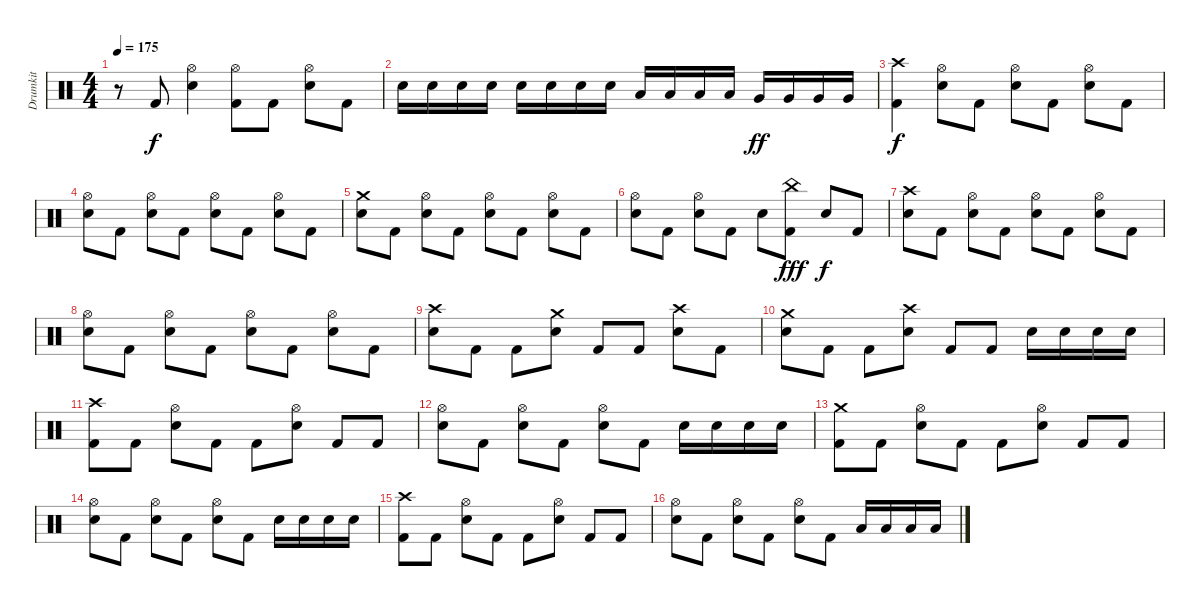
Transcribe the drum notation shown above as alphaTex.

\track ("Drumkit" "Drumkit") {instrument percussion}
\staff {score}
\articulation defaults
\ts (4 4)
\tempo 175
\clef neutral
\ks c
r.8{dy f} "Kick (hit) 2".8 ("Hi-Hat (open)" "Electric Snare (hit)").4 ("Hi-Hat (open)" "Kick (hit) 2").8 "Kick (hit) 2".8 ("Hi-Hat (open)" "Electric Snare (hit)").8 "Kick (hit) 2".8 |
"Electric Snare (hit)".16 "Electric Snare (hit)".16 "Electric Snare (hit)".16 "Electric Snare (hit)".16 "Electric Snare (hit)".16 "Electric Snare (hit)".16 "Electric Snare (hit)".16 "Electric Snare (hit)".16 "Low Tom (hit)".16 "Low Tom (hit)".16 "Low Tom (hit)".16 "Low Tom (hit)".16 "Very Low Tom (hit)".16{dy ff} "Very Low Tom (hit)".16 "Very Low Tom (hit)".16 "Very Low Tom (hit)".16 |
("Crash high (hit)" "Kick (hit) 2").4{dy f} ("Hi-Hat (open)" "Electric Snare (hit)").8 "Kick (hit) 2".8 ("Hi-Hat (open)" "Electric Snare (hit)").8 "Kick (hit) 2".8 ("Hi-Hat (open)" "Electric Snare (hit)").8 "Kick (hit) 2".8 |
("Hi-Hat (open)" "Electric Snare (hit)").8 "Kick (hit) 2".8 ("Hi-Hat (open)" "Electric Snare (hit)").8 "Kick (hit) 2".8 ("Hi-Hat (open)" "Electric Snare (hit)").8 "Kick (hit) 2".8 ("Hi-Hat (open)" "Electric Snare (hit)").8 "Kick (hit) 2".8 |
("Crash medium (hit)" "Electric Snare (hit)").8 "Kick (hit) 2".8 ("Hi-Hat (open)" "Electric Snare (hit)").8 "Kick (hit) 2".8 ("Hi-Hat (open)" "Electric Snare (hit)").8 "Kick (hit) 2".8 ("Hi-Hat (open)" "Electric Snare (hit)").8 "Kick (hit) 2".8 |
("Hi-Hat (open)" "Electric Snare (hit)").8 "Kick (hit) 2".8 ("Hi-Hat (open)" "Electric Snare (hit)").8 "Kick (hit) 2".8 "Electric Snare (hit)".8 ("China (hit)" "Kick (hit) 2").8{dy fff} "Electric Snare (hit)".8{dy f} "Kick (hit) 2".8 |
("Crash high (hit)" "Electric Snare (hit)").8 "Kick (hit) 2".8 ("Hi-Hat (open)" "Electric Snare (hit)").8 "Kick (hit) 2".8 ("Hi-Hat (open)" "Electric Snare (hit)").8 "Kick (hit) 2".8 ("Hi-Hat (open)" "Electric Snare (hit)").8 "Kick (hit) 2".8 |
("Hi-Hat (open)" "Electric Snare (hit)").8 "Kick (hit) 2".8 ("Hi-Hat (open)" "Electric Snare (hit)").8 "Kick (hit) 2".8 ("Hi-Hat (open)" "Electric Snare (hit)").8 "Kick (hit) 2".8 ("Hi-Hat (open)" "Electric Snare (hit)").8 "Kick (hit) 2".8 |
("Crash high (hit)" "Electric Snare (hit)").8 "Kick (hit) 2".8 "Kick (hit) 2".8 ("Crash medium (hit)" "Electric Snare (hit)").8 "Kick (hit) 2".8 "Kick (hit) 2".8 ("Crash high (hit)" "Electric Snare (hit)").8 "Kick (hit) 2".8 |
("Crash medium (hit)" "Electric Snare (hit)").8 "Kick (hit) 2".8 "Kick (hit) 2".8 ("Crash high (hit)" "Electric Snare (hit)").8 "Kick (hit) 2".8 "Kick (hit) 2".8 "Electric Snare (hit)".16 "Electric Snare (hit)".16 "Electric Snare (hit)".16 "Electric Snare (hit)".16 |
("Crash high (hit)" "Kick (hit) 2").8 "Kick (hit) 2".8 ("Hi-Hat (open)" "Electric Snare (hit)").8 "Kick (hit) 2".8 "Kick (hit) 2".8 ("Hi-Hat (open)" "Electric Snare (hit)").8 "Kick (hit) 2".8 "Kick (hit) 2".8 |
("Hi-Hat (open)" "Electric Snare (hit)").8 "Kick (hit) 2".8 ("Hi-Hat (open)" "Electric Snare (hit)").8 "Kick (hit) 2".8 ("Hi-Hat (open)" "Electric Snare (hit)").8 "Kick (hit) 2".8 "Electric Snare (hit)".16 "Electric Snare (hit)".16 "Electric Snare (hit)".16 "Electric Snare (hit)".16 |
("Crash medium (hit)" "Kick (hit) 2").8 "Kick (hit) 2".8 ("Hi-Hat (open)" "Electric Snare (hit)").8 "Kick (hit) 2".8 "Kick (hit) 2".8 ("Hi-Hat (open)" "Electric Snare (hit)").8 "Kick (hit) 2".8 "Kick (hit) 2".8 |
("Hi-Hat (open)" "Electric Snare (hit)").8 "Kick (hit) 2".8 ("Hi-Hat (open)" "Electric Snare (hit)").8 "Kick (hit) 2".8 ("Hi-Hat (open)" "Electric Snare (hit)").8 "Kick (hit) 2".8 "Electric Snare (hit)".16 "Electric Snare (hit)".16 "Electric Snare (hit)".16 "Electric Snare (hit)".16 |
("Crash high (hit)" "Kick (hit) 2").8 "Kick (hit) 2".8 ("Hi-Hat (open)" "Electric Snare (hit)").8 "Kick (hit) 2".8 "Kick (hit) 2".8 ("Hi-Hat (open)" "Electric Snare (hit)").8 "Kick (hit) 2".8 "Kick (hit) 2".8 |
("Hi-Hat (open)" "Electric Snare (hit)").8 "Kick (hit) 2".8 ("Hi-Hat (open)" "Electric Snare (hit)").8 "Kick (hit) 2".8 ("Hi-Hat (open)" "Electric Snare (hit)").8 "Kick (hit) 2".8 "Low Tom (hit)".16 "Low Tom (hit)".16 "Low Tom (hit)".16 "Low Tom (hit)".16
